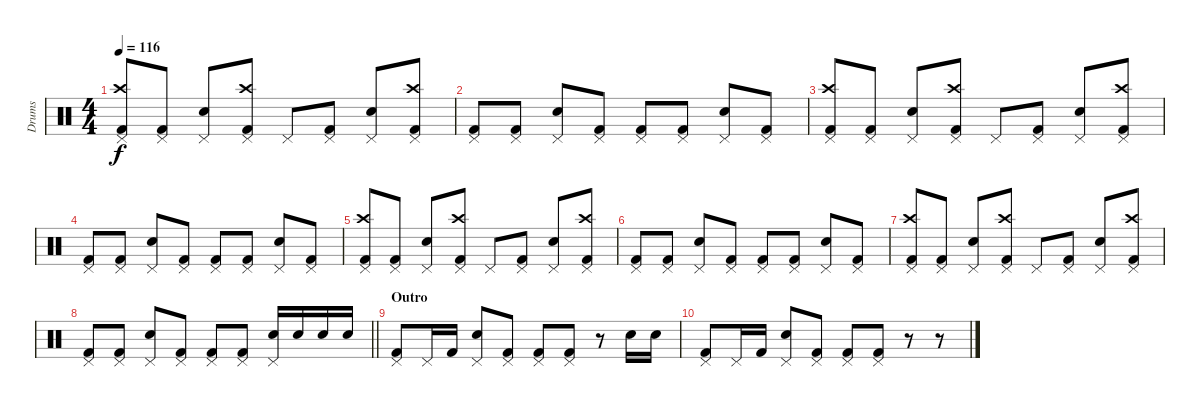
\track ("Drums" "Drums") {instrument percussion}
\staff {score}
\articulation defaults
\ts (4 4)
\tempo 116
\clef neutral
\ks c
("Pedal Hi-Hat (hit)" "Crash high (hit)" "Kick (hit) 2").8{dy f} ("Pedal Hi-Hat (hit)" "Kick (hit) 2").8 ("Pedal Hi-Hat (hit)" "Electric Snare (hit)").8 ("Pedal Hi-Hat (hit)" "Crash high (hit)" "Kick (hit) 2").8 "Pedal Hi-Hat (hit)".8 ("Pedal Hi-Hat (hit)" "Kick (hit) 2").8 ("Pedal Hi-Hat (hit)" "Electric Snare (hit)").8 ("Pedal Hi-Hat (hit)" "Crash high (hit)" "Kick (hit) 2").8 |
("Pedal Hi-Hat (hit)" "Kick (hit) 2").8 ("Pedal Hi-Hat (hit)" "Kick (hit) 2").8 ("Pedal Hi-Hat (hit)" "Electric Snare (hit)").8 ("Pedal Hi-Hat (hit)" "Kick (hit) 2").8 ("Pedal Hi-Hat (hit)" "Kick (hit) 2").8 ("Pedal Hi-Hat (hit)" "Kick (hit) 2").8 ("Pedal Hi-Hat (hit)" "Electric Snare (hit)").8 ("Pedal Hi-Hat (hit)" "Kick (hit) 2").8 |
("Pedal Hi-Hat (hit)" "Crash high (hit)" "Kick (hit) 2").8 ("Pedal Hi-Hat (hit)" "Kick (hit) 2").8 ("Pedal Hi-Hat (hit)" "Electric Snare (hit)").8 ("Pedal Hi-Hat (hit)" "Crash high (hit)" "Kick (hit) 2").8 "Pedal Hi-Hat (hit)".8 ("Pedal Hi-Hat (hit)" "Kick (hit) 2").8 ("Pedal Hi-Hat (hit)" "Electric Snare (hit)").8 ("Pedal Hi-Hat (hit)" "Crash high (hit)" "Kick (hit) 2").8 |
("Pedal Hi-Hat (hit)" "Kick (hit) 2").8 ("Pedal Hi-Hat (hit)" "Kick (hit) 2").8 ("Pedal Hi-Hat (hit)" "Electric Snare (hit)").8 ("Pedal Hi-Hat (hit)" "Kick (hit) 2").8 ("Pedal Hi-Hat (hit)" "Kick (hit) 2").8 ("Pedal Hi-Hat (hit)" "Kick (hit) 2").8 ("Pedal Hi-Hat (hit)" "Electric Snare (hit)").8 ("Pedal Hi-Hat (hit)" "Kick (hit) 2").8 |
("Pedal Hi-Hat (hit)" "Crash high (hit)" "Kick (hit) 2").8 ("Pedal Hi-Hat (hit)" "Kick (hit) 2").8 ("Pedal Hi-Hat (hit)" "Electric Snare (hit)").8 ("Pedal Hi-Hat (hit)" "Crash high (hit)" "Kick (hit) 2").8 "Pedal Hi-Hat (hit)".8 ("Pedal Hi-Hat (hit)" "Kick (hit) 2").8 ("Pedal Hi-Hat (hit)" "Electric Snare (hit)").8 ("Pedal Hi-Hat (hit)" "Crash high (hit)" "Kick (hit) 2").8 |
("Pedal Hi-Hat (hit)" "Kick (hit) 2").8 ("Pedal Hi-Hat (hit)" "Kick (hit) 2").8 ("Pedal Hi-Hat (hit)" "Electric Snare (hit)").8 ("Pedal Hi-Hat (hit)" "Kick (hit) 2").8 ("Pedal Hi-Hat (hit)" "Kick (hit) 2").8 ("Pedal Hi-Hat (hit)" "Kick (hit) 2").8 ("Pedal Hi-Hat (hit)" "Electric Snare (hit)").8 ("Pedal Hi-Hat (hit)" "Kick (hit) 2").8 |
("Pedal Hi-Hat (hit)" "Crash high (hit)" "Kick (hit) 2").8 ("Pedal Hi-Hat (hit)" "Kick (hit) 2").8 ("Pedal Hi-Hat (hit)" "Electric Snare (hit)").8 ("Pedal Hi-Hat (hit)" "Crash high (hit)" "Kick (hit) 2").8 "Pedal Hi-Hat (hit)".8 ("Pedal Hi-Hat (hit)" "Kick (hit) 2").8 ("Pedal Hi-Hat (hit)" "Electric Snare (hit)").8 ("Pedal Hi-Hat (hit)" "Crash high (hit)" "Kick (hit) 2").8 |
\barLineRight lightlight
("Pedal Hi-Hat (hit)" "Kick (hit) 2").8 ("Pedal Hi-Hat (hit)" "Kick (hit) 2").8 ("Pedal Hi-Hat (hit)" "Electric Snare (hit)").8 ("Pedal Hi-Hat (hit)" "Kick (hit) 2").8 ("Pedal Hi-Hat (hit)" "Kick (hit) 2").8 ("Pedal Hi-Hat (hit)" "Kick (hit) 2").8 ("Pedal Hi-Hat (hit)" "Electric Snare (hit)").16 "Electric Snare (hit)".16 "Electric Snare (hit)".16 "Electric Snare (hit)".16 |
\section ("" "Outro")
("Pedal Hi-Hat (hit)" "Kick (hit) 2").8 "Pedal Hi-Hat (hit)".16 "Kick (hit) 2".16 ("Pedal Hi-Hat (hit)" "Electric Snare (hit)").8 ("Pedal Hi-Hat (hit)" "Kick (hit) 2").8 ("Pedal Hi-Hat (hit)" "Kick (hit) 2").8 ("Pedal Hi-Hat (hit)" "Kick (hit) 2").8 r.8 "Electric Snare (hit)".16 "Electric Snare (hit)".16 |
("Pedal Hi-Hat (hit)" "Kick (hit) 2").8 "Pedal Hi-Hat (hit)".16 "Kick (hit) 2".16 ("Pedal Hi-Hat (hit)" "Electric Snare (hit)").8 ("Pedal Hi-Hat (hit)" "Kick (hit) 2").8 ("Pedal Hi-Hat (hit)" "Kick (hit) 2").8 ("Pedal Hi-Hat (hit)" "Kick (hit) 2").8 r.8 r.8
